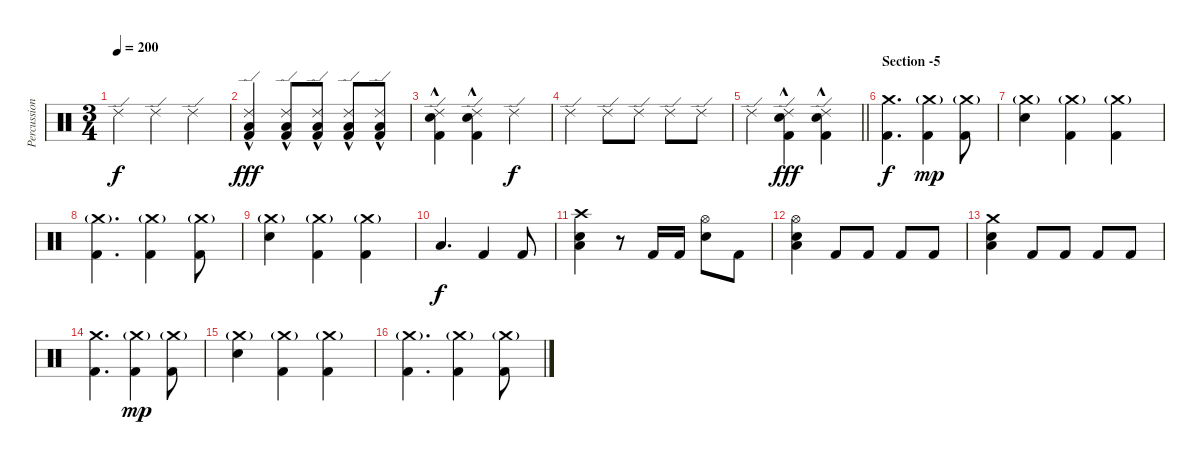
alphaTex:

\track ("Percussions" "Percussion") {instrument percussion}
\staff {score}
\articulation defaults
\ts (3 4)
\tempo 200
\clef neutral
\ks c "Ride (edge) 2".4{dy f} "Ride (edge) 2".4 "Ride (edge) 2".4
|
("Ride (edge) 2" "Low Tom (hit)"{hac} "Kick (hit) 2"{hac}).4{dy fff} ("Ride (edge) 2" "Low Tom (hit)"{hac} "Kick (hit) 2"{hac}).8 ("Ride (edge) 2" "Low Tom (hit)"{hac} "Kick (hit) 2"{hac}).8 ("Ride (edge) 2" "Low Tom (hit)"{hac} "Kick (hit) 2"{hac}).8 ("Ride (edge) 2" "Low Tom (hit)"{hac} "Kick (hit) 2"{hac}).8 |
("Ride (edge) 2" "Electric Snare (hit)"{hac} "Kick (hit) 2"{hac}).4 ("Ride (edge) 2" "Electric Snare (hit)"{hac} "Kick (hit) 2"{hac}).4 "Ride (edge) 2".4{dy f} |
"Ride (edge) 2".4 "Ride (edge) 2".8 "Ride (edge) 2".8 "Ride (edge) 2".8 "Ride (edge) 2".8 |
\barLineRight lightlight "Ride (edge) 2".4
("Ride (edge) 2" "Electric Snare (hit)"{hac} "Kick (hit) 2"{hac}).4{dy fff} ("Ride (edge) 2" "Electric Snare (hit)"{hac} "Kick (hit) 2"{hac}).4 |
\section ("" "Section -5")
("Crash medium (hit)" "Kick (hit) 2").4{d dy f} ("Crash medium (hit)"{g} "Kick (hit) 2").4{dy mp} ("Crash medium (hit)"{g} "Kick (hit) 2").8 |
("Crash medium (hit)"{g} "Electric Snare (hit)").4 ("Crash medium (hit)"{g} "Kick (hit) 2").4 ("Crash medium (hit)"{g} "Kick (hit) 2").4 |
("Crash medium (hit)"{g} "Kick (hit) 2").4{d} ("Crash medium (hit)"{g} "Kick (hit) 2").4 ("Crash medium (hit)"{g} "Kick (hit) 2").8 |
("Crash medium (hit)"{g} "Electric Snare (hit)").4 ("Crash medium (hit)"{g} "Kick (hit) 2").4 ("Crash medium (hit)"{g} "Kick (hit) 2").4 |
"Low Tom (hit)".4{d dy f} "Kick (hit) 2".4 "Kick (hit) 2".8 |
("Crash high (hit)" "Electric Snare (hit)" "Low Tom (hit)").4 r.8 "Kick (hit) 2".16 "Kick (hit) 2".16 ("Hi-Hat (open)" "Electric Snare (hit)").8 "Kick (hit) 2".8 |
("Hi-Hat (open)" "Low Tom (hit)" "Electric Snare (hit)").4 "Kick (hit) 2".8 "Kick (hit) 2".8 "Kick (hit) 2".8 "Kick (hit) 2".8 |
("Crash medium (hit)" "Low Tom (hit)" "Electric Snare (hit)").4 "Kick (hit) 2".8 "Kick (hit) 2".8 "Kick (hit) 2".8 "Kick (hit) 2".8 |
("Crash medium (hit)" "Kick (hit) 2").4{d} ("Crash medium (hit)"{g} "Kick (hit) 2").4{dy mp} ("Crash medium (hit)"{g} "Kick (hit) 2").8 |
("Crash medium (hit)"{g} "Electric Snare (hit)").4 ("Crash medium (hit)"{g} "Kick (hit) 2").4 ("Crash medium (hit)"{g} "Kick (hit) 2").4 |
("Crash medium (hit)"{g} "Kick (hit) 2").4{d} ("Crash medium (hit)"{g} "Kick (hit) 2").4 ("Crash medium (hit)"{g} "Kick (hit) 2").8
